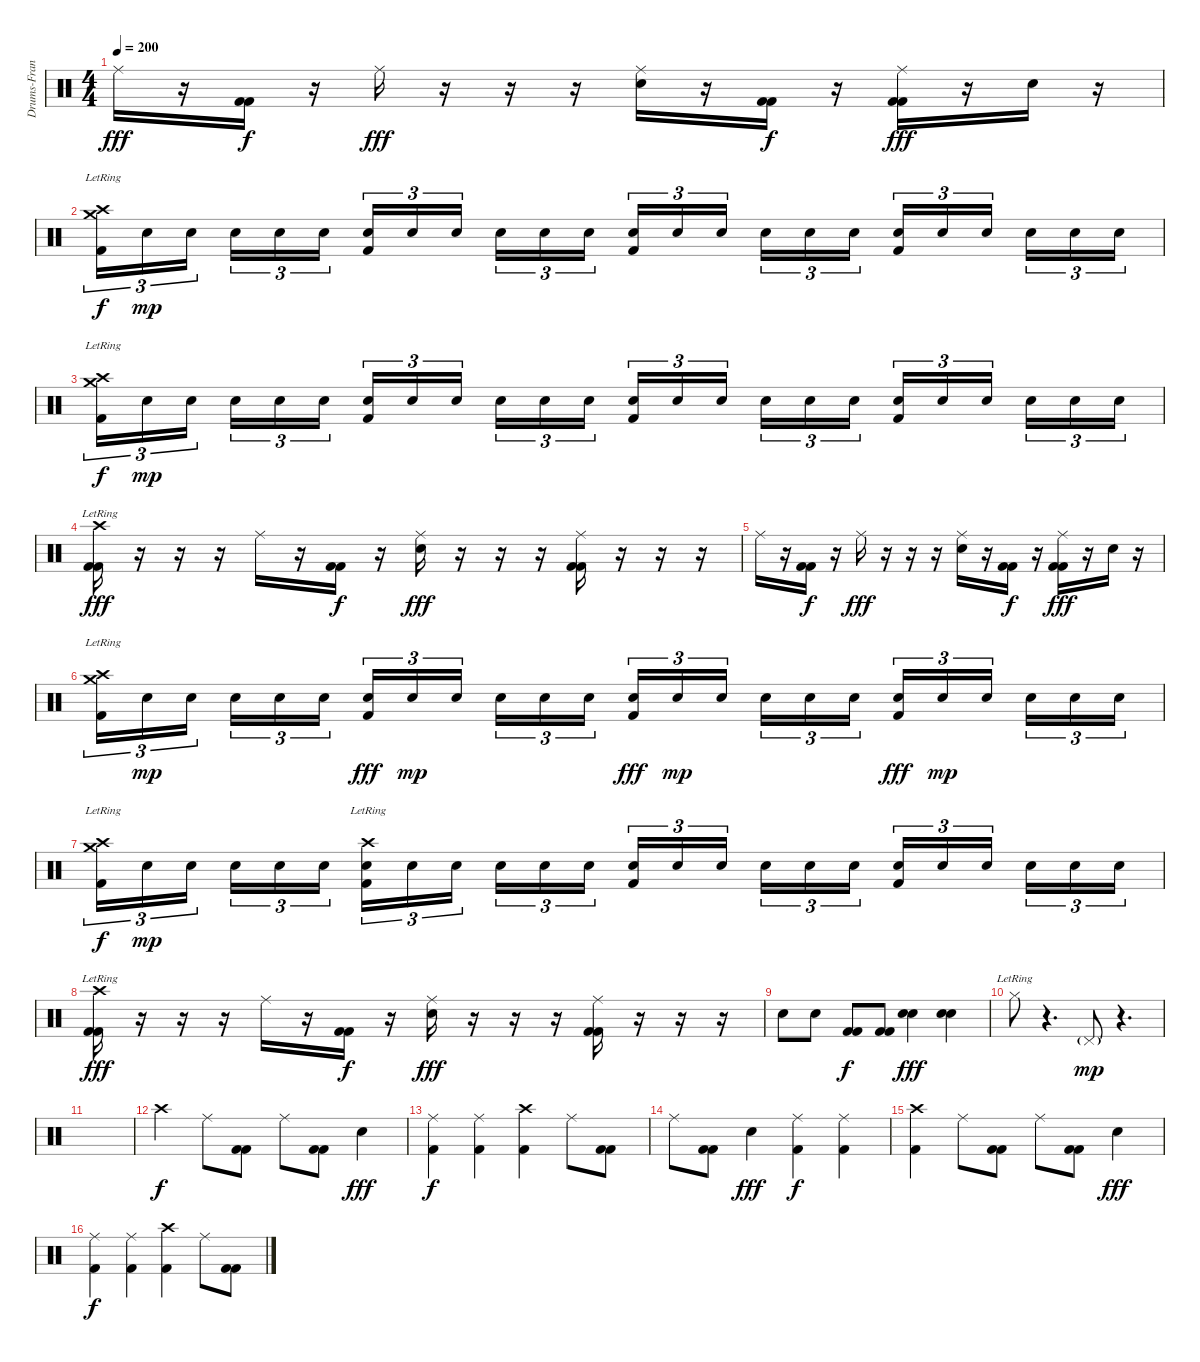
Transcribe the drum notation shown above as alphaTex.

\track ("Drums-Francis Mark" "Drums-Fran") {instrument percussion}
\staff {score}
\articulation defaults
\ts (4 4)
\tempo 200
\clef neutral
\ks c "Ride (middle)".16{dy fff}
r.16 ("Kick (hit) 2" "Kick (hit) 2").16{dy f} r.16 "Ride (middle)".16{dy fff} r.16 r.16 r.16 ("Ride (middle)" "Electric Snare (hit)").16 r.16 ("Kick (hit) 2" "Kick (hit) 2").16{dy f} r.16 ("Ride (middle)" "Kick (hit) 2" "Kick (hit) 2").16{dy fff} r.16 "Electric Snare (hit)".16 r.16 |
("Crash medium (hit)"{lr} "Crash high (hit)"{lr} "Kick (hit) 2").16{tu (3 2) dy f} "Electric Snare (hit)".16{tu (3 2) dy mp} "Electric Snare (hit)".16{tu (3 2)} "Electric Snare (hit)".16{tu (3 2)} "Electric Snare (hit)".16{tu (3 2)} "Electric Snare (hit)".16{tu (3 2)} ("Electric Snare (hit)" "Kick (hit) 2").16{tu (3 2)} "Electric Snare (hit)".16{tu (3 2)} "Electric Snare (hit)".16{tu (3 2)} "Electric Snare (hit)".16{tu (3 2)} "Electric Snare (hit)".16{tu (3 2)} "Electric Snare (hit)".16{tu (3 2)} ("Electric Snare (hit)" "Kick (hit) 2").16{tu (3 2)} "Electric Snare (hit)".16{tu (3 2)} "Electric Snare (hit)".16{tu (3 2)} "Electric Snare (hit)".16{tu (3 2)} "Electric Snare (hit)".16{tu (3 2)} "Electric Snare (hit)".16{tu (3 2)} ("Electric Snare (hit)" "Kick (hit) 2").16{tu (3 2)} "Electric Snare (hit)".16{tu (3 2)} "Electric Snare (hit)".16{tu (3 2)} "Electric Snare (hit)".16{tu (3 2)} "Electric Snare (hit)".16{tu (3 2)} "Electric Snare (hit)".16{tu (3 2)} |
("Crash medium (hit)"{lr} "Crash high (hit)"{lr} "Kick (hit) 2").16{tu (3 2) dy f} "Electric Snare (hit)".16{tu (3 2) dy mp} "Electric Snare (hit)".16{tu (3 2)} "Electric Snare (hit)".16{tu (3 2)} "Electric Snare (hit)".16{tu (3 2)} "Electric Snare (hit)".16{tu (3 2)} ("Electric Snare (hit)" "Kick (hit) 2").16{tu (3 2)} "Electric Snare (hit)".16{tu (3 2)} "Electric Snare (hit)".16{tu (3 2)} "Electric Snare (hit)".16{tu (3 2)} "Electric Snare (hit)".16{tu (3 2)} "Electric Snare (hit)".16{tu (3 2)} ("Electric Snare (hit)" "Kick (hit) 2").16{tu (3 2)} "Electric Snare (hit)".16{tu (3 2)} "Electric Snare (hit)".16{tu (3 2)} "Electric Snare (hit)".16{tu (3 2)} "Electric Snare (hit)".16{tu (3 2)} "Electric Snare (hit)".16{tu (3 2)} ("Electric Snare (hit)" "Kick (hit) 2").16{tu (3 2)} "Electric Snare (hit)".16{tu (3 2)} "Electric Snare (hit)".16{tu (3 2)} "Electric Snare (hit)".16{tu (3 2)} "Electric Snare (hit)".16{tu (3 2)} "Electric Snare (hit)".16{tu (3 2)} |
("Crash high (hit)"{lr} "Kick (hit) 2" "Kick (hit) 2").16{dy fff} r.16 r.16 r.16 "Ride (middle)".16 r.16 ("Kick (hit) 2" "Kick (hit) 2").16{dy f} r.16 ("Ride (middle)" "Electric Snare (hit)").16{dy fff} r.16 r.16 r.16 ("Ride (middle)" "Kick (hit) 2" "Kick (hit) 2").16 r.16 r.16 r.16 |
"Ride (middle)".16 r.16 ("Kick (hit) 2" "Kick (hit) 2").16{dy f} r.16 "Ride (middle)".16{dy fff} r.16 r.16 r.16 ("Ride (middle)" "Electric Snare (hit)").16 r.16 ("Kick (hit) 2" "Kick (hit) 2").16{dy f} r.16 ("Ride (middle)" "Kick (hit) 2" "Kick (hit) 2").16{dy fff} r.16 "Electric Snare (hit)".16 r.16 |
("Crash medium (hit)"{lr} "Crash high (hit)"{lr} "Kick (hit) 2").16{tu (3 2)} "Electric Snare (hit)".16{tu (3 2) dy mp} "Electric Snare (hit)".16{tu (3 2)} "Electric Snare (hit)".16{tu (3 2)} "Electric Snare (hit)".16{tu (3 2)} "Electric Snare (hit)".16{tu (3 2)} ("Electric Snare (hit)" "Kick (hit) 2").16{tu (3 2) dy fff} "Electric Snare (hit)".16{tu (3 2) dy mp} "Electric Snare (hit)".16{tu (3 2)} "Electric Snare (hit)".16{tu (3 2)} "Electric Snare (hit)".16{tu (3 2)} "Electric Snare (hit)".16{tu (3 2)} ("Electric Snare (hit)" "Kick (hit) 2").16{tu (3 2) dy fff} "Electric Snare (hit)".16{tu (3 2) dy mp} "Electric Snare (hit)".16{tu (3 2)} "Electric Snare (hit)".16{tu (3 2)} "Electric Snare (hit)".16{tu (3 2)} "Electric Snare (hit)".16{tu (3 2)} ("Electric Snare (hit)" "Kick (hit) 2").16{tu (3 2) dy fff} "Electric Snare (hit)".16{tu (3 2) dy mp} "Electric Snare (hit)".16{tu (3 2)} "Electric Snare (hit)".16{tu (3 2)} "Electric Snare (hit)".16{tu (3 2)} "Electric Snare (hit)".16{tu (3 2)} |
("Crash medium (hit)"{lr} "Crash high (hit)"{lr} "Kick (hit) 2").16{tu (3 2) dy f} "Electric Snare (hit)".16{tu (3 2) dy mp} "Electric Snare (hit)".16{tu (3 2)} "Electric Snare (hit)".16{tu (3 2)} "Electric Snare (hit)".16{tu (3 2)} "Electric Snare (hit)".16{tu (3 2)} ("Crash high (hit)"{lr} "Electric Snare (hit)" "Kick (hit) 2").16{tu (3 2)} "Electric Snare (hit)".16{tu (3 2)} "Electric Snare (hit)".16{tu (3 2)} "Electric Snare (hit)".16{tu (3 2)} "Electric Snare (hit)".16{tu (3 2)} "Electric Snare (hit)".16{tu (3 2)} ("Electric Snare (hit)" "Kick (hit) 2").16{tu (3 2)} "Electric Snare (hit)".16{tu (3 2)} "Electric Snare (hit)".16{tu (3 2)} "Electric Snare (hit)".16{tu (3 2)} "Electric Snare (hit)".16{tu (3 2)} "Electric Snare (hit)".16{tu (3 2)} ("Electric Snare (hit)" "Kick (hit) 2").16{tu (3 2)} "Electric Snare (hit)".16{tu (3 2)} "Electric Snare (hit)".16{tu (3 2)} "Electric Snare (hit)".16{tu (3 2)} "Electric Snare (hit)".16{tu (3 2)} "Electric Snare (hit)".16{tu (3 2)} |
("Crash high (hit)"{lr} "Kick (hit) 2" "Kick (hit) 2").16{dy fff} r.16 r.16 r.16 "Ride (middle)".16 r.16 ("Kick (hit) 2" "Kick (hit) 2").16{dy f} r.16 ("Ride (middle)" "Electric Snare (hit)").16{dy fff} r.16 r.16 r.16 ("Ride (middle)" "Kick (hit) 2" "Kick (hit) 2").16 r.16 r.16 r.16 |
"Electric Snare (hit)".8 "Electric Snare (hit)".8 ("Kick (hit) 2" "Kick (hit) 2").8{dy f} ("Kick (hit) 2" "Kick (hit) 2").8 ("Electric Snare (hit)" "Electric Snare (hit)").4{dy fff} ("Electric Snare (hit)" "Electric Snare (hit)").4 |
"Hi-Hat (closed)"{lr}.8 r.4{d} "Pedal Hi-Hat (hit)"{g}.8{dy mp} r.4{d} |
|
"Crash high (hit)".4{dy f} "Ride (middle)".8 ("Kick (hit) 2" "Kick (hit) 2").8 "Ride (middle)".8 ("Kick (hit) 2" "Kick (hit) 2").8 "Electric Snare (hit)".4{dy fff} |
("Ride (middle)" "Kick (hit) 2").4{dy f} ("Ride (middle)" "Kick (hit) 2").4 ("Crash high (hit)" "Kick (hit) 2").4 "Ride (middle)".8 ("Kick (hit) 2" "Kick (hit) 2").8 |
"Ride (middle)".8 ("Kick (hit) 2" "Kick (hit) 2").8 "Electric Snare (hit)".4{dy fff} ("Ride (middle)" "Kick (hit) 2").4{dy f} ("Ride (middle)" "Kick (hit) 2").4 |
("Crash high (hit)" "Kick (hit) 2").4 "Ride (middle)".8 ("Kick (hit) 2" "Kick (hit) 2").8 "Ride (middle)".8 ("Kick (hit) 2" "Kick (hit) 2").8 "Electric Snare (hit)".4{dy fff} |
("Ride (middle)" "Kick (hit) 2").4{dy f} ("Ride (middle)" "Kick (hit) 2").4 ("Crash high (hit)" "Kick (hit) 2").4 "Ride (middle)".8 ("Kick (hit) 2" "Kick (hit) 2").8
